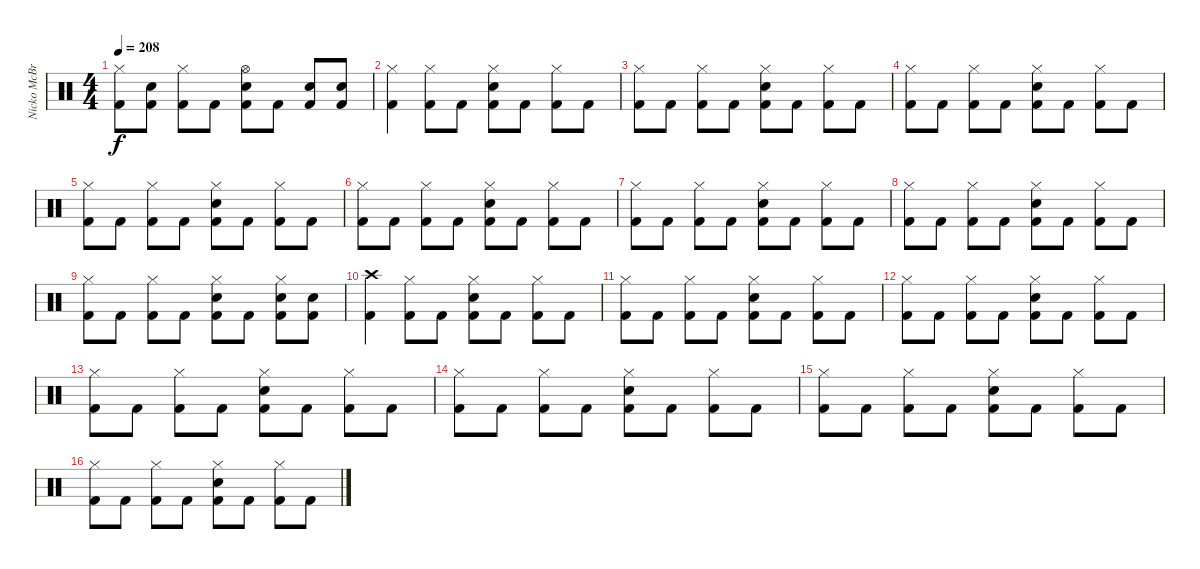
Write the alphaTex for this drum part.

\track ("Nicko McBrain" "Nicko McBr") {instrument percussion}
\staff {score}
\articulation defaults
\ts (4 4)
\tempo 208
\clef neutral
\ks c
("Hi-Hat (closed)" "Kick (hit) 2").8{dy f} ("Electric Snare (hit)" "Kick (hit) 2").8 ("Hi-Hat (closed)" "Kick (hit) 2").8 "Kick (hit) 2".8 ("Hi-Hat (open)" "Electric Snare (hit)" "Kick (hit) 2").8 "Kick (hit) 2".8 ("Electric Snare (hit)" "Kick (hit) 2").8 ("Electric Snare (hit)" "Kick (hit) 2").8 |
("Hi-Hat (closed)" "Kick (hit) 2").4 ("Hi-Hat (closed)" "Kick (hit) 2").8 "Kick (hit) 2".8 ("Hi-Hat (closed)" "Electric Snare (hit)" "Kick (hit) 2").8 "Kick (hit) 2".8 ("Hi-Hat (closed)" "Kick (hit) 2").8 "Kick (hit) 2".8 |
("Hi-Hat (closed)" "Kick (hit) 2").8 "Kick (hit) 2".8 ("Hi-Hat (closed)" "Kick (hit) 2").8 "Kick (hit) 2".8 ("Hi-Hat (closed)" "Electric Snare (hit)" "Kick (hit) 2").8 "Kick (hit) 2".8 ("Hi-Hat (closed)" "Kick (hit) 2").8 "Kick (hit) 2".8 |
("Hi-Hat (closed)" "Kick (hit) 2").8 "Kick (hit) 2".8 ("Hi-Hat (closed)" "Kick (hit) 2").8 "Kick (hit) 2".8 ("Hi-Hat (closed)" "Electric Snare (hit)" "Kick (hit) 2").8 "Kick (hit) 2".8 ("Hi-Hat (closed)" "Kick (hit) 2").8 "Kick (hit) 2".8 |
("Hi-Hat (closed)" "Kick (hit) 2").8 "Kick (hit) 2".8 ("Hi-Hat (closed)" "Kick (hit) 2").8 "Kick (hit) 2".8 ("Hi-Hat (closed)" "Electric Snare (hit)" "Kick (hit) 2").8 "Kick (hit) 2".8 ("Hi-Hat (closed)" "Kick (hit) 2").8 "Kick (hit) 2".8 |
("Hi-Hat (closed)" "Kick (hit) 2").8 "Kick (hit) 2".8 ("Hi-Hat (closed)" "Kick (hit) 2").8 "Kick (hit) 2".8 ("Hi-Hat (closed)" "Electric Snare (hit)" "Kick (hit) 2").8 "Kick (hit) 2".8 ("Hi-Hat (closed)" "Kick (hit) 2").8 "Kick (hit) 2".8 |
("Hi-Hat (closed)" "Kick (hit) 2").8 "Kick (hit) 2".8 ("Hi-Hat (closed)" "Kick (hit) 2").8 "Kick (hit) 2".8 ("Hi-Hat (closed)" "Electric Snare (hit)" "Kick (hit) 2").8 "Kick (hit) 2".8 ("Hi-Hat (closed)" "Kick (hit) 2").8 "Kick (hit) 2".8 |
("Hi-Hat (closed)" "Kick (hit) 2").8 "Kick (hit) 2".8 ("Hi-Hat (closed)" "Kick (hit) 2").8 "Kick (hit) 2".8 ("Hi-Hat (closed)" "Electric Snare (hit)" "Kick (hit) 2").8 "Kick (hit) 2".8 ("Hi-Hat (closed)" "Kick (hit) 2").8 "Kick (hit) 2".8 |
("Hi-Hat (closed)" "Kick (hit) 2").8 "Kick (hit) 2".8 ("Hi-Hat (closed)" "Kick (hit) 2").8 "Kick (hit) 2".8 ("Hi-Hat (closed)" "Electric Snare (hit)" "Kick (hit) 2").8 "Kick (hit) 2".8 ("Hi-Hat (closed)" "Electric Snare (hit)" "Kick (hit) 2").8 ("Electric Snare (hit)" "Kick (hit) 2").8 |
("Crash high (hit)" "Kick (hit) 2").4 ("Hi-Hat (closed)" "Kick (hit) 2").8 "Kick (hit) 2".8 ("Hi-Hat (closed)" "Electric Snare (hit)" "Kick (hit) 2").8 "Kick (hit) 2".8 ("Hi-Hat (closed)" "Kick (hit) 2").8 "Kick (hit) 2".8 |
("Hi-Hat (closed)" "Kick (hit) 2").8 "Kick (hit) 2".8 ("Hi-Hat (closed)" "Kick (hit) 2").8 "Kick (hit) 2".8 ("Hi-Hat (closed)" "Electric Snare (hit)" "Kick (hit) 2").8 "Kick (hit) 2".8 ("Hi-Hat (closed)" "Kick (hit) 2").8 "Kick (hit) 2".8 |
("Hi-Hat (closed)" "Kick (hit) 2").8 "Kick (hit) 2".8 ("Hi-Hat (closed)" "Kick (hit) 2").8 "Kick (hit) 2".8 ("Hi-Hat (closed)" "Electric Snare (hit)" "Kick (hit) 2").8 "Kick (hit) 2".8 ("Hi-Hat (closed)" "Kick (hit) 2").8 "Kick (hit) 2".8 |
("Hi-Hat (closed)" "Kick (hit) 2").8 "Kick (hit) 2".8 ("Hi-Hat (closed)" "Kick (hit) 2").8 "Kick (hit) 2".8 ("Hi-Hat (closed)" "Electric Snare (hit)" "Kick (hit) 2").8 "Kick (hit) 2".8 ("Hi-Hat (closed)" "Kick (hit) 2").8 "Kick (hit) 2".8 |
("Hi-Hat (closed)" "Kick (hit) 2").8 "Kick (hit) 2".8 ("Hi-Hat (closed)" "Kick (hit) 2").8 "Kick (hit) 2".8 ("Hi-Hat (closed)" "Electric Snare (hit)" "Kick (hit) 2").8 "Kick (hit) 2".8 ("Hi-Hat (closed)" "Kick (hit) 2").8 "Kick (hit) 2".8 |
("Hi-Hat (closed)" "Kick (hit) 2").8 "Kick (hit) 2".8 ("Hi-Hat (closed)" "Kick (hit) 2").8 "Kick (hit) 2".8 ("Hi-Hat (closed)" "Electric Snare (hit)" "Kick (hit) 2").8 "Kick (hit) 2".8 ("Hi-Hat (closed)" "Kick (hit) 2").8 "Kick (hit) 2".8 |
("Hi-Hat (closed)" "Kick (hit) 2").8 "Kick (hit) 2".8 ("Hi-Hat (closed)" "Kick (hit) 2").8 "Kick (hit) 2".8 ("Hi-Hat (closed)" "Electric Snare (hit)" "Kick (hit) 2").8 "Kick (hit) 2".8 ("Hi-Hat (closed)" "Kick (hit) 2").8 "Kick (hit) 2".8
